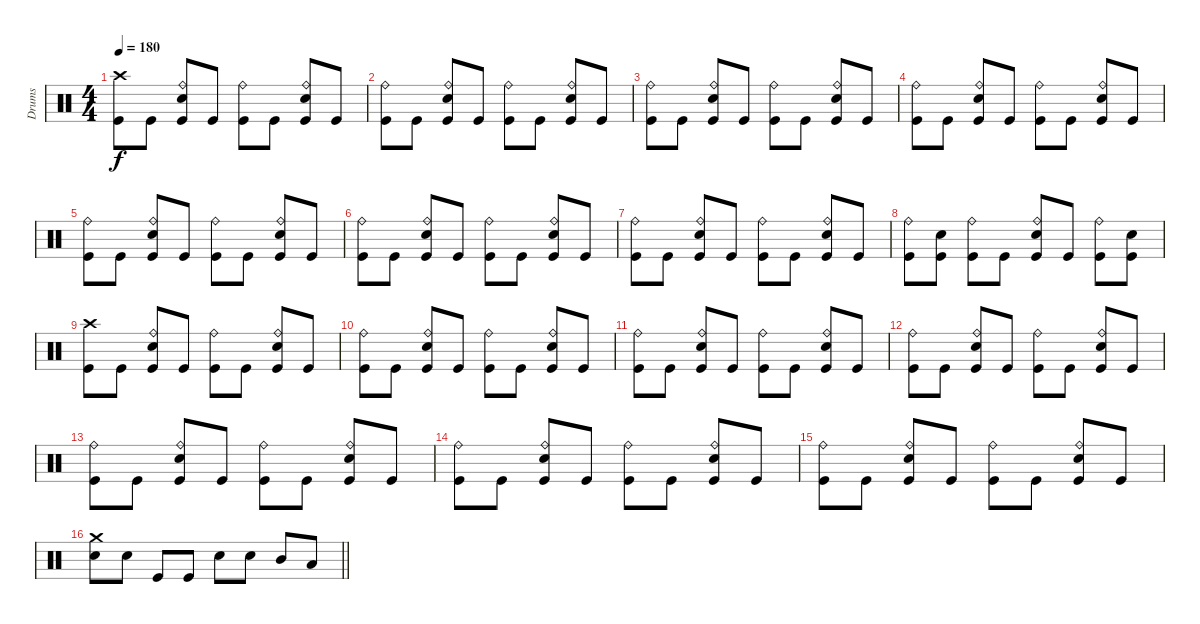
\track ("Drums" "Drums") {instrument percussion}
\staff {score}
\articulation defaults
\ts (4 4)
\tempo 180
\clef neutral
\ks c
("Crash high (hit)" "Kick (hit)").8{dy f} "Kick (hit)".8 ("Ride (bell)" "Snare (hit) 2" "Kick (hit)").8 "Kick (hit)".8 ("Ride (bell)" "Kick (hit)").8 "Kick (hit)".8 ("Ride (bell)" "Snare (hit) 2" "Kick (hit)").8 "Kick (hit)".8 |
("Ride (bell)" "Kick (hit)").8 "Kick (hit)".8 ("Ride (bell)" "Snare (hit) 2" "Kick (hit)").8 "Kick (hit)".8 ("Ride (bell)" "Kick (hit)").8 "Kick (hit)".8 ("Ride (bell)" "Snare (hit) 2" "Kick (hit)").8 "Kick (hit)".8 |
("Ride (bell)" "Kick (hit)").8 "Kick (hit)".8 ("Ride (bell)" "Snare (hit) 2" "Kick (hit)").8 "Kick (hit)".8 ("Ride (bell)" "Kick (hit)").8 "Kick (hit)".8 ("Ride (bell)" "Snare (hit) 2" "Kick (hit)").8 "Kick (hit)".8 |
("Ride (bell)" "Kick (hit)").8 "Kick (hit)".8 ("Ride (bell)" "Snare (hit) 2" "Kick (hit)").8 "Kick (hit)".8 ("Ride (bell)" "Kick (hit)").8 "Kick (hit)".8 ("Ride (bell)" "Snare (hit) 2" "Kick (hit)").8 "Kick (hit)".8 |
("Ride (bell)" "Kick (hit)").8 "Kick (hit)".8 ("Ride (bell)" "Snare (hit) 2" "Kick (hit)").8 "Kick (hit)".8 ("Ride (bell)" "Kick (hit)").8 "Kick (hit)".8 ("Ride (bell)" "Snare (hit) 2" "Kick (hit)").8 "Kick (hit)".8 |
("Ride (bell)" "Kick (hit)").8 "Kick (hit)".8 ("Ride (bell)" "Snare (hit) 2" "Kick (hit)").8 "Kick (hit)".8 ("Ride (bell)" "Kick (hit)").8 "Kick (hit)".8 ("Ride (bell)" "Snare (hit) 2" "Kick (hit)").8 "Kick (hit)".8 |
("Ride (bell)" "Kick (hit)").8 "Kick (hit)".8 ("Ride (bell)" "Snare (hit) 2" "Kick (hit)").8 "Kick (hit)".8 ("Ride (bell)" "Kick (hit)").8 "Kick (hit)".8 ("Ride (bell)" "Snare (hit) 2" "Kick (hit)").8 "Kick (hit)".8 |
("Ride (bell)" "Kick (hit)").8 ("Snare (hit) 2" "Kick (hit)").8 ("Ride (bell)" "Kick (hit)").8 "Kick (hit)".8 ("Ride (bell)" "Snare (hit) 2" "Kick (hit)").8 "Kick (hit)".8 ("Ride (bell)" "Kick (hit)").8 ("Snare (hit) 2" "Kick (hit)").8 |
("Crash high (hit)" "Kick (hit)").8 "Kick (hit)".8 ("Ride (bell)" "Snare (hit) 2" "Kick (hit)").8 "Kick (hit)".8 ("Ride (bell)" "Kick (hit)").8 "Kick (hit)".8 ("Ride (bell)" "Snare (hit) 2" "Kick (hit)").8 "Kick (hit)".8 |
("Ride (bell)" "Kick (hit)").8 "Kick (hit)".8 ("Ride (bell)" "Snare (hit) 2" "Kick (hit)").8 "Kick (hit)".8 ("Ride (bell)" "Kick (hit)").8 "Kick (hit)".8 ("Ride (bell)" "Snare (hit) 2" "Kick (hit)").8 "Kick (hit)".8 |
("Ride (bell)" "Kick (hit)").8 "Kick (hit)".8 ("Ride (bell)" "Snare (hit) 2" "Kick (hit)").8 "Kick (hit)".8 ("Ride (bell)" "Kick (hit)").8 "Kick (hit)".8 ("Ride (bell)" "Snare (hit) 2" "Kick (hit)").8 "Kick (hit)".8 |
("Ride (bell)" "Kick (hit)").8 "Kick (hit)".8 ("Ride (bell)" "Snare (hit) 2" "Kick (hit)").8 "Kick (hit)".8 ("Ride (bell)" "Kick (hit)").8 "Kick (hit)".8 ("Ride (bell)" "Snare (hit) 2" "Kick (hit)").8 "Kick (hit)".8 |
("Ride (bell)" "Kick (hit)").8 "Kick (hit)".8 ("Ride (bell)" "Snare (hit) 2" "Kick (hit)").8 "Kick (hit)".8 ("Ride (bell)" "Kick (hit)").8 "Kick (hit)".8 ("Ride (bell)" "Snare (hit) 2" "Kick (hit)").8 "Kick (hit)".8 |
("Ride (bell)" "Kick (hit)").8 "Kick (hit)".8 ("Ride (bell)" "Snare (hit) 2" "Kick (hit)").8 "Kick (hit)".8 ("Ride (bell)" "Kick (hit)").8 "Kick (hit)".8 ("Ride (bell)" "Snare (hit) 2" "Kick (hit)").8 "Kick (hit)".8 |
("Ride (bell)" "Kick (hit)").8 "Kick (hit)".8 ("Ride (bell)" "Snare (hit) 2" "Kick (hit)").8 "Kick (hit)".8 ("Ride (bell)" "Kick (hit)").8 "Kick (hit)".8 ("Ride (bell)" "Snare (hit) 2" "Kick (hit)").8 "Kick (hit)".8 |
\barLineRight lightlight
("Crash medium (hit)" "Snare (hit) 2").8 "Snare (hit) 2".8 "Kick (hit)".8 "Kick (hit)".8 "Snare (hit) 2".8 "Snare (hit) 2".8 "Mid Tom (hit)".8 "Low Tom (hit)".8
